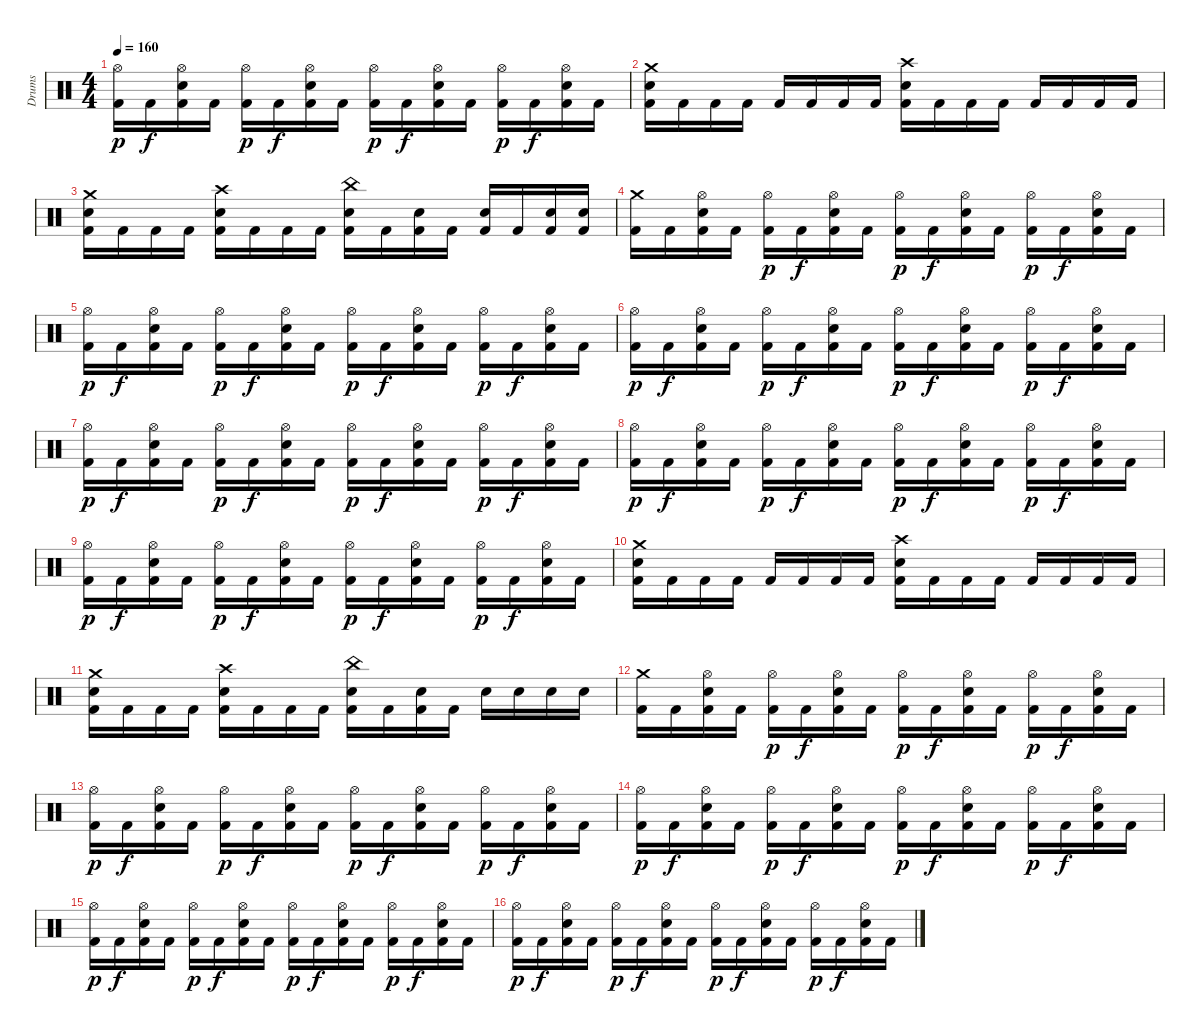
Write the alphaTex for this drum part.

\track ("Drums" "Drums") {instrument percussion}
\staff {score}
\articulation defaults
\ts (4 4)
\tempo 160
\clef neutral
\ks c
("Hi-Hat (open)" "Kick (hit) 2").16{dy p} "Kick (hit) 2".16{dy f} ("Hi-Hat (open)" "Electric Snare (hit)" "Kick (hit) 2").16 "Kick (hit) 2".16 ("Hi-Hat (open)" "Kick (hit) 2").16{dy p} "Kick (hit) 2".16{dy f} ("Hi-Hat (open)" "Electric Snare (hit)" "Kick (hit) 2").16 "Kick (hit) 2".16 ("Hi-Hat (open)" "Kick (hit) 2").16{dy p} "Kick (hit) 2".16{dy f} ("Hi-Hat (open)" "Electric Snare (hit)" "Kick (hit) 2").16 "Kick (hit) 2".16 ("Hi-Hat (open)" "Kick (hit) 2").16{dy p} "Kick (hit) 2".16{dy f} ("Hi-Hat (open)" "Electric Snare (hit)" "Kick (hit) 2").16 "Kick (hit) 2".16 |
("Crash medium (hit)" "Electric Snare (hit)" "Kick (hit) 2").16 "Kick (hit) 2".16 "Kick (hit) 2".16 "Kick (hit) 2".16 "Kick (hit) 2".16 "Kick (hit) 2".16 "Kick (hit) 2".16 "Kick (hit) 2".16 ("Crash high (hit)" "Electric Snare (hit)" "Kick (hit) 2").16 "Kick (hit) 2".16 "Kick (hit) 2".16 "Kick (hit) 2".16 "Kick (hit) 2".16 "Kick (hit) 2".16 "Kick (hit) 2".16 "Kick (hit) 2".16 |
("Crash medium (hit)" "Electric Snare (hit)" "Kick (hit) 2").16 "Kick (hit) 2".16 "Kick (hit) 2".16 "Kick (hit) 2".16 ("Crash high (hit)" "Electric Snare (hit)" "Kick (hit) 2").16 "Kick (hit) 2".16 "Kick (hit) 2".16 "Kick (hit) 2".16 ("China (hit)" "Electric Snare (hit)" "Kick (hit) 2").16 "Kick (hit) 2".16 ("Electric Snare (hit)" "Kick (hit) 2").16 "Kick (hit) 2".16 ("Electric Snare (hit)" "Kick (hit) 2").16 "Kick (hit) 2".16 ("Electric Snare (hit)" "Kick (hit) 2").16 ("Electric Snare (hit)" "Kick (hit) 2").16 |
("Crash medium (hit)" "Kick (hit) 2").16 "Kick (hit) 2".16 ("Hi-Hat (open)" "Electric Snare (hit)" "Kick (hit) 2").16 "Kick (hit) 2".16 ("Hi-Hat (open)" "Kick (hit) 2").16{dy p} "Kick (hit) 2".16{dy f} ("Hi-Hat (open)" "Electric Snare (hit)" "Kick (hit) 2").16 "Kick (hit) 2".16 ("Hi-Hat (open)" "Kick (hit) 2").16{dy p} "Kick (hit) 2".16{dy f} ("Hi-Hat (open)" "Electric Snare (hit)" "Kick (hit) 2").16 "Kick (hit) 2".16 ("Hi-Hat (open)" "Kick (hit) 2").16{dy p} "Kick (hit) 2".16{dy f} ("Hi-Hat (open)" "Electric Snare (hit)" "Kick (hit) 2").16 "Kick (hit) 2".16 |
("Hi-Hat (open)" "Kick (hit) 2").16{dy p} "Kick (hit) 2".16{dy f} ("Hi-Hat (open)" "Electric Snare (hit)" "Kick (hit) 2").16 "Kick (hit) 2".16 ("Hi-Hat (open)" "Kick (hit) 2").16{dy p} "Kick (hit) 2".16{dy f} ("Hi-Hat (open)" "Electric Snare (hit)" "Kick (hit) 2").16 "Kick (hit) 2".16 ("Hi-Hat (open)" "Kick (hit) 2").16{dy p} "Kick (hit) 2".16{dy f} ("Hi-Hat (open)" "Electric Snare (hit)" "Kick (hit) 2").16 "Kick (hit) 2".16 ("Hi-Hat (open)" "Kick (hit) 2").16{dy p} "Kick (hit) 2".16{dy f} ("Hi-Hat (open)" "Electric Snare (hit)" "Kick (hit) 2").16 "Kick (hit) 2".16 |
("Hi-Hat (open)" "Kick (hit) 2").16{dy p} "Kick (hit) 2".16{dy f} ("Hi-Hat (open)" "Electric Snare (hit)" "Kick (hit) 2").16 "Kick (hit) 2".16 ("Hi-Hat (open)" "Kick (hit) 2").16{dy p} "Kick (hit) 2".16{dy f} ("Hi-Hat (open)" "Electric Snare (hit)" "Kick (hit) 2").16 "Kick (hit) 2".16 ("Hi-Hat (open)" "Kick (hit) 2").16{dy p} "Kick (hit) 2".16{dy f} ("Hi-Hat (open)" "Electric Snare (hit)" "Kick (hit) 2").16 "Kick (hit) 2".16 ("Hi-Hat (open)" "Kick (hit) 2").16{dy p} "Kick (hit) 2".16{dy f} ("Hi-Hat (open)" "Electric Snare (hit)" "Kick (hit) 2").16 "Kick (hit) 2".16 |
("Hi-Hat (open)" "Kick (hit) 2").16{dy p} "Kick (hit) 2".16{dy f} ("Hi-Hat (open)" "Electric Snare (hit)" "Kick (hit) 2").16 "Kick (hit) 2".16 ("Hi-Hat (open)" "Kick (hit) 2").16{dy p} "Kick (hit) 2".16{dy f} ("Hi-Hat (open)" "Electric Snare (hit)" "Kick (hit) 2").16 "Kick (hit) 2".16 ("Hi-Hat (open)" "Kick (hit) 2").16{dy p} "Kick (hit) 2".16{dy f} ("Hi-Hat (open)" "Electric Snare (hit)" "Kick (hit) 2").16 "Kick (hit) 2".16 ("Hi-Hat (open)" "Kick (hit) 2").16{dy p} "Kick (hit) 2".16{dy f} ("Hi-Hat (open)" "Electric Snare (hit)" "Kick (hit) 2").16 "Kick (hit) 2".16 |
("Hi-Hat (open)" "Kick (hit) 2").16{dy p} "Kick (hit) 2".16{dy f} ("Hi-Hat (open)" "Electric Snare (hit)" "Kick (hit) 2").16 "Kick (hit) 2".16 ("Hi-Hat (open)" "Kick (hit) 2").16{dy p} "Kick (hit) 2".16{dy f} ("Hi-Hat (open)" "Electric Snare (hit)" "Kick (hit) 2").16 "Kick (hit) 2".16 ("Hi-Hat (open)" "Kick (hit) 2").16{dy p} "Kick (hit) 2".16{dy f} ("Hi-Hat (open)" "Electric Snare (hit)" "Kick (hit) 2").16 "Kick (hit) 2".16 ("Hi-Hat (open)" "Kick (hit) 2").16{dy p} "Kick (hit) 2".16{dy f} ("Hi-Hat (open)" "Electric Snare (hit)" "Kick (hit) 2").16 "Kick (hit) 2".16 |
("Hi-Hat (open)" "Kick (hit) 2").16{dy p} "Kick (hit) 2".16{dy f} ("Hi-Hat (open)" "Electric Snare (hit)" "Kick (hit) 2").16 "Kick (hit) 2".16 ("Hi-Hat (open)" "Kick (hit) 2").16{dy p} "Kick (hit) 2".16{dy f} ("Hi-Hat (open)" "Electric Snare (hit)" "Kick (hit) 2").16 "Kick (hit) 2".16 ("Hi-Hat (open)" "Kick (hit) 2").16{dy p} "Kick (hit) 2".16{dy f} ("Hi-Hat (open)" "Electric Snare (hit)" "Kick (hit) 2").16 "Kick (hit) 2".16 ("Hi-Hat (open)" "Kick (hit) 2").16{dy p} "Kick (hit) 2".16{dy f} ("Hi-Hat (open)" "Electric Snare (hit)" "Kick (hit) 2").16 "Kick (hit) 2".16 |
("Crash medium (hit)" "Electric Snare (hit)" "Kick (hit) 2").16 "Kick (hit) 2".16 "Kick (hit) 2".16 "Kick (hit) 2".16 "Kick (hit) 2".16 "Kick (hit) 2".16 "Kick (hit) 2".16 "Kick (hit) 2".16 ("Crash high (hit)" "Electric Snare (hit)" "Kick (hit) 2").16 "Kick (hit) 2".16 "Kick (hit) 2".16 "Kick (hit) 2".16 "Kick (hit) 2".16 "Kick (hit) 2".16 "Kick (hit) 2".16 "Kick (hit) 2".16 |
("Crash medium (hit)" "Electric Snare (hit)" "Kick (hit) 2").16 "Kick (hit) 2".16 "Kick (hit) 2".16 "Kick (hit) 2".16 ("Crash high (hit)" "Electric Snare (hit)" "Kick (hit) 2").16 "Kick (hit) 2".16 "Kick (hit) 2".16 "Kick (hit) 2".16 ("China (hit)" "Electric Snare (hit)" "Kick (hit) 2").16 "Kick (hit) 2".16 ("Electric Snare (hit)" "Kick (hit) 2").16 "Kick (hit) 2".16 "Electric Snare (hit)".16 "Electric Snare (hit)".16 "Electric Snare (hit)".16 "Electric Snare (hit)".16 |
\section ("" "")
("Crash medium (hit)" "Kick (hit) 2").16 "Kick (hit) 2".16 ("Hi-Hat (open)" "Electric Snare (hit)" "Kick (hit) 2").16 "Kick (hit) 2".16 ("Hi-Hat (open)" "Kick (hit) 2").16{dy p} "Kick (hit) 2".16{dy f} ("Hi-Hat (open)" "Electric Snare (hit)" "Kick (hit) 2").16 "Kick (hit) 2".16 ("Hi-Hat (open)" "Kick (hit) 2").16{dy p} "Kick (hit) 2".16{dy f} ("Hi-Hat (open)" "Electric Snare (hit)" "Kick (hit) 2").16 "Kick (hit) 2".16 ("Hi-Hat (open)" "Kick (hit) 2").16{dy p} "Kick (hit) 2".16{dy f} ("Hi-Hat (open)" "Electric Snare (hit)" "Kick (hit) 2").16 "Kick (hit) 2".16 |
("Hi-Hat (open)" "Kick (hit) 2").16{dy p} "Kick (hit) 2".16{dy f} ("Hi-Hat (open)" "Electric Snare (hit)" "Kick (hit) 2").16 "Kick (hit) 2".16 ("Hi-Hat (open)" "Kick (hit) 2").16{dy p} "Kick (hit) 2".16{dy f} ("Hi-Hat (open)" "Electric Snare (hit)" "Kick (hit) 2").16 "Kick (hit) 2".16 ("Hi-Hat (open)" "Kick (hit) 2").16{dy p} "Kick (hit) 2".16{dy f} ("Hi-Hat (open)" "Electric Snare (hit)" "Kick (hit) 2").16 "Kick (hit) 2".16 ("Hi-Hat (open)" "Kick (hit) 2").16{dy p} "Kick (hit) 2".16{dy f} ("Hi-Hat (open)" "Electric Snare (hit)" "Kick (hit) 2").16 "Kick (hit) 2".16 |
("Hi-Hat (open)" "Kick (hit) 2").16{dy p} "Kick (hit) 2".16{dy f} ("Hi-Hat (open)" "Electric Snare (hit)" "Kick (hit) 2").16 "Kick (hit) 2".16 ("Hi-Hat (open)" "Kick (hit) 2").16{dy p} "Kick (hit) 2".16{dy f} ("Hi-Hat (open)" "Electric Snare (hit)" "Kick (hit) 2").16 "Kick (hit) 2".16 ("Hi-Hat (open)" "Kick (hit) 2").16{dy p} "Kick (hit) 2".16{dy f} ("Hi-Hat (open)" "Electric Snare (hit)" "Kick (hit) 2").16 "Kick (hit) 2".16 ("Hi-Hat (open)" "Kick (hit) 2").16{dy p} "Kick (hit) 2".16{dy f} ("Hi-Hat (open)" "Electric Snare (hit)" "Kick (hit) 2").16 "Kick (hit) 2".16 |
("Hi-Hat (open)" "Kick (hit) 2").16{dy p} "Kick (hit) 2".16{dy f} ("Hi-Hat (open)" "Electric Snare (hit)" "Kick (hit) 2").16 "Kick (hit) 2".16 ("Hi-Hat (open)" "Kick (hit) 2").16{dy p} "Kick (hit) 2".16{dy f} ("Hi-Hat (open)" "Electric Snare (hit)" "Kick (hit) 2").16 "Kick (hit) 2".16 ("Hi-Hat (open)" "Kick (hit) 2").16{dy p} "Kick (hit) 2".16{dy f} ("Hi-Hat (open)" "Electric Snare (hit)" "Kick (hit) 2").16 "Kick (hit) 2".16 ("Hi-Hat (open)" "Kick (hit) 2").16{dy p} "Kick (hit) 2".16{dy f} ("Hi-Hat (open)" "Electric Snare (hit)" "Kick (hit) 2").16 "Kick (hit) 2".16 |
("Hi-Hat (open)" "Kick (hit) 2").16{dy p} "Kick (hit) 2".16{dy f} ("Hi-Hat (open)" "Electric Snare (hit)" "Kick (hit) 2").16 "Kick (hit) 2".16 ("Hi-Hat (open)" "Kick (hit) 2").16{dy p} "Kick (hit) 2".16{dy f} ("Hi-Hat (open)" "Electric Snare (hit)" "Kick (hit) 2").16 "Kick (hit) 2".16 ("Hi-Hat (open)" "Kick (hit) 2").16{dy p} "Kick (hit) 2".16{dy f} ("Hi-Hat (open)" "Electric Snare (hit)" "Kick (hit) 2").16 "Kick (hit) 2".16 ("Hi-Hat (open)" "Kick (hit) 2").16{dy p} "Kick (hit) 2".16{dy f} ("Hi-Hat (open)" "Electric Snare (hit)" "Kick (hit) 2").16 "Kick (hit) 2".16
